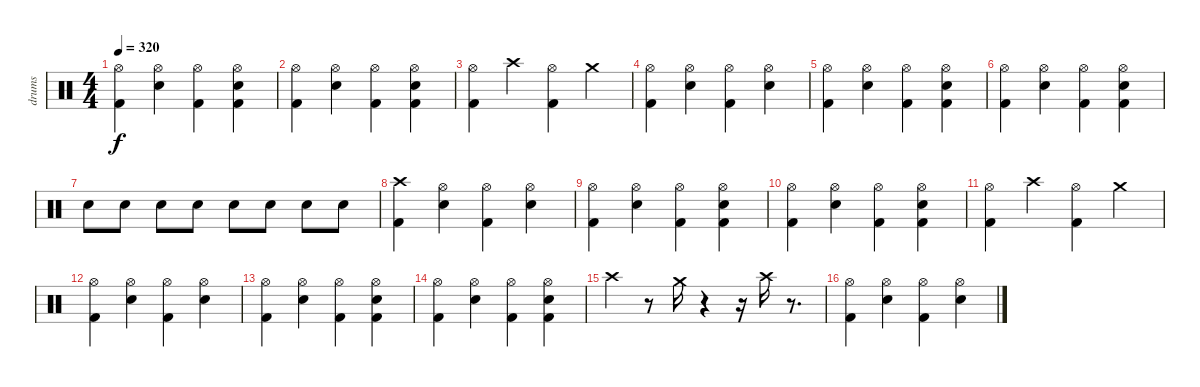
\track ("drums" "drums") {instrument percussion}
\staff {score}
\articulation defaults
\ts (4 4)
\tempo 320
\clef neutral
\ks c
("Hi-Hat (open)" "Kick (hit) 2").4{dy f} ("Hi-Hat (open)" "Snare (hit) 2").4 ("Hi-Hat (open)" "Kick (hit) 2").4 ("Hi-Hat (open)" "Snare (hit) 2" "Kick (hit) 2").4 |
("Hi-Hat (open)" "Kick (hit) 2").4 ("Hi-Hat (open)" "Snare (hit) 2").4 ("Hi-Hat (open)" "Kick (hit) 2").4 ("Hi-Hat (open)" "Snare (hit) 2" "Kick (hit) 2").4 |
("Hi-Hat (open)" "Kick (hit) 2").4 "Crash high (hit)".4 ("Hi-Hat (open)" "Kick (hit) 2").4 "Crash medium (hit)".4 |
("Hi-Hat (open)" "Kick (hit) 2").4 ("Hi-Hat (open)" "Snare (hit) 2").4 ("Hi-Hat (open)" "Kick (hit) 2").4 ("Hi-Hat (open)" "Snare (hit) 2").4 |
("Hi-Hat (open)" "Kick (hit) 2").4 ("Hi-Hat (open)" "Snare (hit) 2").4 ("Hi-Hat (open)" "Kick (hit) 2").4 ("Hi-Hat (open)" "Snare (hit) 2" "Kick (hit) 2").4 |
("Hi-Hat (open)" "Kick (hit) 2").4 ("Hi-Hat (open)" "Snare (hit) 2").4 ("Hi-Hat (open)" "Kick (hit) 2").4 ("Hi-Hat (open)" "Snare (hit) 2" "Kick (hit) 2").4 |
"Snare (hit) 2".8 "Snare (hit) 2".8 "Snare (hit) 2".8 "Snare (hit) 2".8 "Snare (hit) 2".8 "Snare (hit) 2".8 "Snare (hit) 2".8 "Snare (hit) 2".8 |
("Crash high (hit)" "Kick (hit) 2").4 ("Hi-Hat (open)" "Snare (hit) 2").4 ("Hi-Hat (open)" "Kick (hit) 2").4 ("Hi-Hat (open)" "Snare (hit) 2").4 |
("Hi-Hat (open)" "Kick (hit) 2").4 ("Hi-Hat (open)" "Snare (hit) 2").4 ("Hi-Hat (open)" "Kick (hit) 2").4 ("Hi-Hat (open)" "Snare (hit) 2" "Kick (hit) 2").4 |
("Hi-Hat (open)" "Kick (hit) 2").4 ("Hi-Hat (open)" "Snare (hit) 2").4 ("Hi-Hat (open)" "Kick (hit) 2").4 ("Hi-Hat (open)" "Snare (hit) 2" "Kick (hit) 2").4 |
("Hi-Hat (open)" "Kick (hit) 2").4 "Crash high (hit)".4 ("Hi-Hat (open)" "Kick (hit) 2").4 "Crash medium (hit)".4 |
("Hi-Hat (open)" "Kick (hit) 2").4 ("Hi-Hat (open)" "Snare (hit) 2").4 ("Hi-Hat (open)" "Kick (hit) 2").4 ("Hi-Hat (open)" "Snare (hit) 2").4 |
("Hi-Hat (open)" "Kick (hit) 2").4 ("Hi-Hat (open)" "Snare (hit) 2").4 ("Hi-Hat (open)" "Kick (hit) 2").4 ("Hi-Hat (open)" "Snare (hit) 2" "Kick (hit) 2").4 |
("Hi-Hat (open)" "Kick (hit) 2").4 ("Hi-Hat (open)" "Snare (hit) 2").4 ("Hi-Hat (open)" "Kick (hit) 2").4 ("Hi-Hat (open)" "Snare (hit) 2" "Kick (hit) 2").4 |
"Crash high (hit)".4 r.8 "Crash medium (hit)".16 r.4 r.16 "Crash high (hit)".16 r.8{d} |
("Hi-Hat (open)" "Kick (hit) 2").4 ("Hi-Hat (open)" "Snare (hit) 2").4 ("Hi-Hat (open)" "Kick (hit) 2").4 ("Hi-Hat (open)" "Snare (hit) 2").4
